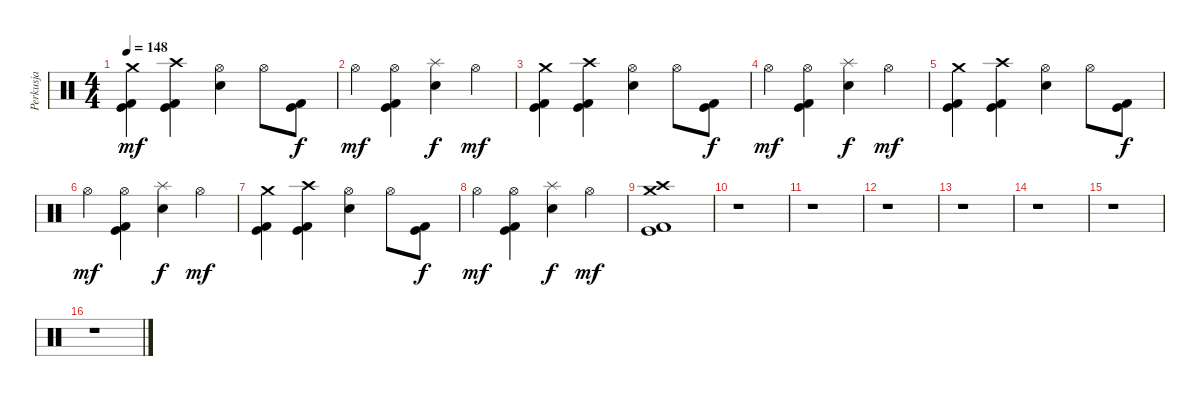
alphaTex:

\track ("Perkusja" "Perkusja") {instrument percussion}
\staff {score}
\articulation defaults
\ts (4 4)
\tempo 148
\clef neutral
\ks c
("Kick (hit) 2" "Kick (hit)" "Crash medium (hit)").4{dy mf} ("Kick (hit) 2" "Kick (hit)" "Crash high (hit)").4 ("Snare (hit) 2" "Hi-Hat (open)").4 "Hi-Hat (open)".8 ("Kick (hit) 2" "Kick (hit)").8{dy f} |
"Hi-Hat (open)".4{dy mf} ("Kick (hit)" "Kick (hit) 2" "Hi-Hat (open)").4 ("Snare (hit) 2" "Splash (hit)").4{dy f} "Hi-Hat (open)".4{dy mf} |
("Kick (hit) 2" "Kick (hit)" "Crash medium (hit)").4 ("Kick (hit) 2" "Kick (hit)" "Crash high (hit)").4 ("Snare (hit) 2" "Hi-Hat (open)").4 "Hi-Hat (open)".8 ("Kick (hit) 2" "Kick (hit)").8{dy f} |
"Hi-Hat (open)".4{dy mf} ("Kick (hit)" "Kick (hit) 2" "Hi-Hat (open)").4 ("Snare (hit) 2" "Splash (hit)").4{dy f} "Hi-Hat (open)".4{dy mf} |
("Kick (hit) 2" "Kick (hit)" "Crash medium (hit)").4 ("Kick (hit) 2" "Kick (hit)" "Crash high (hit)").4 ("Snare (hit) 2" "Hi-Hat (open)").4 "Hi-Hat (open)".8 ("Kick (hit) 2" "Kick (hit)").8{dy f} |
"Hi-Hat (open)".4{dy mf} ("Kick (hit)" "Kick (hit) 2" "Hi-Hat (open)").4 ("Snare (hit) 2" "Splash (hit)").4{dy f} "Hi-Hat (open)".4{dy mf} |
("Kick (hit) 2" "Kick (hit)" "Crash medium (hit)").4 ("Kick (hit) 2" "Kick (hit)" "Crash high (hit)").4 ("Snare (hit) 2" "Hi-Hat (open)").4 "Hi-Hat (open)".8 ("Kick (hit) 2" "Kick (hit)").8{dy f} |
"Hi-Hat (open)".4{dy mf} ("Kick (hit)" "Kick (hit) 2" "Hi-Hat (open)").4 ("Snare (hit) 2" "Splash (hit)").4{dy f} "Hi-Hat (open)".4{dy mf} |
("Kick (hit) 2" "Kick (hit)" "Crash high (hit)" "Crash medium (hit)").1 |
r.1 |
r.1 |
r.1 |
r.1 |
r.1 |
r.1 |
r.1
